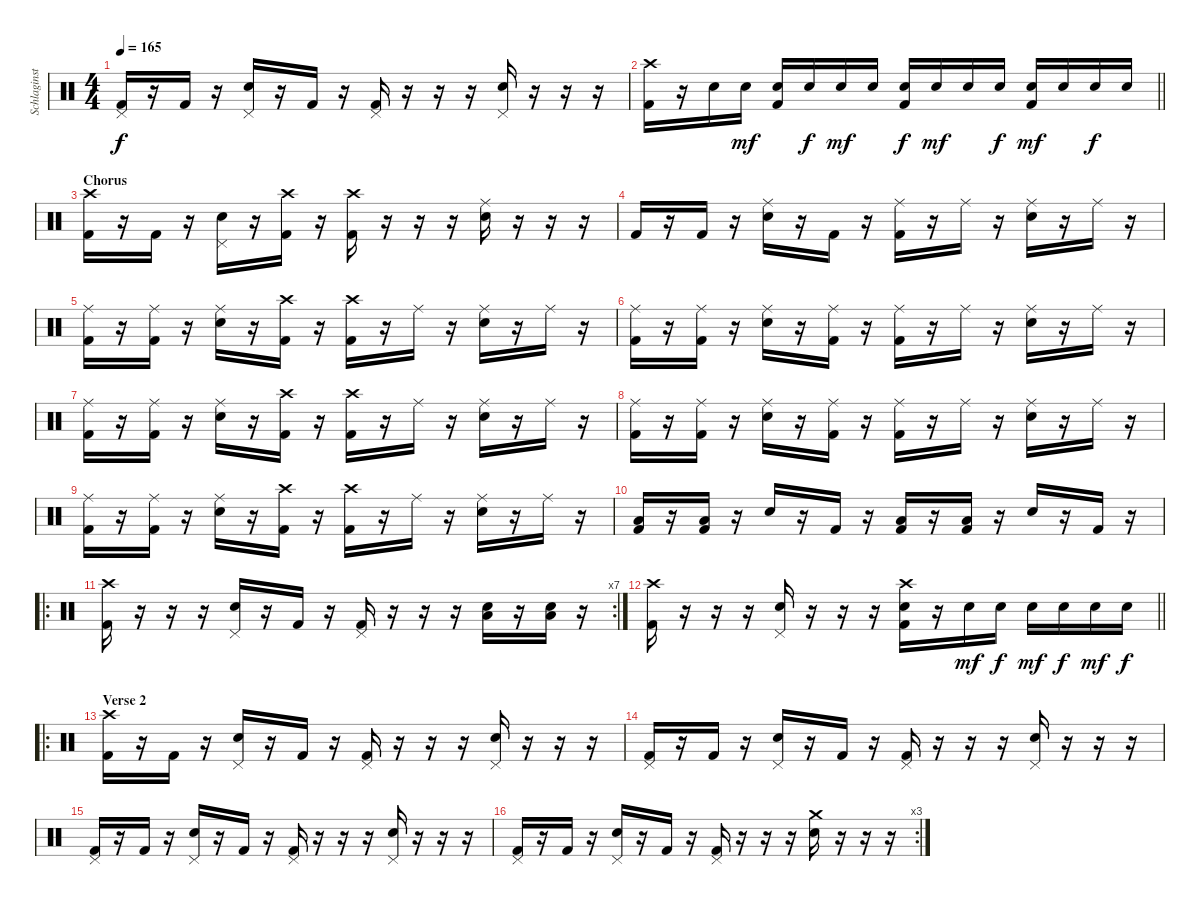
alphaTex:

\track ("Schlaginstrumente - Auswahl" "Schlaginst") {instrument percussion}
\staff {score}
\articulation defaults
\ts (4 4)
\tempo 165
\clef neutral
\ks c
("Pedal Hi-Hat (hit)" "Kick (hit) 2").16{dy f} r.16 "Kick (hit) 2".16 r.16 ("Pedal Hi-Hat (hit)" "Electric Snare (hit)").16 r.16 "Kick (hit) 2".16 r.16 ("Pedal Hi-Hat (hit)" "Kick (hit) 2").16 r.16 r.16 r.16 ("Pedal Hi-Hat (hit)" "Electric Snare (hit)").16 r.16 r.16 r.16 |
\barLineRight lightlight
("Crash high (hit)" "Kick (hit) 2").16 r.16 "Electric Snare (hit)".16 "Electric Snare (hit)".16{dy mf} ("Electric Snare (hit)" "Kick (hit) 2").16 "Electric Snare (hit)".16{dy f} "Electric Snare (hit)".16{dy mf} "Electric Snare (hit)".16 ("Electric Snare (hit)" "Kick (hit) 2").16{dy f} "Electric Snare (hit)".16{dy mf} "Electric Snare (hit)".16 "Electric Snare (hit)".16{dy f} ("Electric Snare (hit)" "Kick (hit) 2").16{dy mf} "Electric Snare (hit)".16 "Electric Snare (hit)".16{dy f} "Electric Snare (hit)".16 |
\section ("" "Chorus")
("Crash high (hit)" "Kick (hit) 2").16 r.16 "Kick (hit) 2".16 r.16 ("Pedal Hi-Hat (hit)" "Electric Snare (hit)").16 r.16 ("Crash high (hit)" "Kick (hit) 2").16 r.16 ("Crash high (hit)" "Kick (hit) 2").16 r.16 r.16 r.16 ("Ride (middle)" "Electric Snare (hit)").16 r.16 r.16 r.16 |
"Kick (hit) 2".16 r.16 "Kick (hit) 2".16 r.16 ("Ride (middle)" "Electric Snare (hit)").16 r.16 "Kick (hit) 2".16 r.16 ("Ride (middle)" "Kick (hit) 2").16 r.16 "Ride (middle)".16 r.16 ("Ride (middle)" "Electric Snare (hit)").16 r.16 "Ride (middle)".16 r.16 |
("Ride (middle)" "Kick (hit) 2").16 r.16 ("Ride (middle)" "Kick (hit) 2").16 r.16 ("Ride (middle)" "Electric Snare (hit)").16 r.16 ("Crash high (hit)" "Kick (hit) 2").16 r.16 ("Crash high (hit)" "Kick (hit) 2").16 r.16 "Ride (middle)".16 r.16 ("Ride (middle)" "Electric Snare (hit)").16 r.16 "Ride (middle)".16 r.16 |
("Ride (middle)" "Kick (hit) 2").16 r.16 ("Ride (middle)" "Kick (hit) 2").16 r.16 ("Ride (middle)" "Electric Snare (hit)").16 r.16 ("Ride (middle)" "Kick (hit) 2").16 r.16 ("Ride (middle)" "Kick (hit) 2").16 r.16 "Ride (middle)".16 r.16 ("Ride (middle)" "Electric Snare (hit)").16 r.16 "Ride (middle)".16 r.16 |
("Ride (middle)" "Kick (hit) 2").16 r.16 ("Ride (middle)" "Kick (hit) 2").16 r.16 ("Ride (middle)" "Electric Snare (hit)").16 r.16 ("Crash high (hit)" "Kick (hit) 2").16 r.16 ("Crash high (hit)" "Kick (hit) 2").16 r.16 "Ride (middle)".16 r.16 ("Ride (middle)" "Electric Snare (hit)").16 r.16 "Ride (middle)".16 r.16 |
("Ride (middle)" "Kick (hit) 2").16 r.16 ("Ride (middle)" "Kick (hit) 2").16 r.16 ("Ride (middle)" "Electric Snare (hit)").16 r.16 ("Ride (middle)" "Kick (hit) 2").16 r.16 ("Ride (middle)" "Kick (hit) 2").16 r.16 "Ride (middle)".16 r.16 ("Ride (middle)" "Electric Snare (hit)").16 r.16 "Ride (middle)".16 r.16 |
("Ride (middle)" "Kick (hit) 2").16 r.16 ("Ride (middle)" "Kick (hit) 2").16 r.16 ("Ride (middle)" "Electric Snare (hit)").16 r.16 ("Crash high (hit)" "Kick (hit) 2").16 r.16 ("Crash high (hit)" "Kick (hit) 2").16 r.16 "Ride (middle)".16 r.16 ("Ride (middle)" "Electric Snare (hit)").16 r.16 "Ride (middle)".16 r.16 |
("Low Floor Tom (hit)" "Kick (hit) 2").16 r.16 ("Low Floor Tom (hit)" "Kick (hit) 2").16 r.16 "Electric Snare (hit)".16 r.16 "Kick (hit) 2".16 r.16 ("Low Floor Tom (hit)" "Kick (hit) 2").16 r.16 ("Low Floor Tom (hit)" "Kick (hit) 2").16 r.16 "Electric Snare (hit)".16 r.16 "Kick (hit) 2".16 r.16 |
\ro
\rc 7
("Crash high (hit)" "Kick (hit) 2").16 r.16 r.16 r.16 ("Pedal Hi-Hat (hit)" "Electric Snare (hit)").16 r.16 "Kick (hit) 2".16 r.16 ("Pedal Hi-Hat (hit)" "Kick (hit) 2").16 r.16 r.16 r.16 ("Electric Snare (hit)" "Low Floor Tom (hit)").16 r.16 ("Electric Snare (hit)" "Low Floor Tom (hit)").16 r.16 |
\barLineRight lightlight
("Crash high (hit)" "Kick (hit) 2").16 r.16 r.16 r.16 ("Pedal Hi-Hat (hit)" "Electric Snare (hit)").16 r.16 r.16 r.16 ("Crash high (hit)" "Electric Snare (hit)" "Kick (hit) 2").16 r.16 "Electric Snare (hit)".16{dy mf} "Electric Snare (hit)".16{dy f} "Electric Snare (hit)".16{dy mf} "Electric Snare (hit)".16{dy f} "Electric Snare (hit)".16{dy mf} "Electric Snare (hit)".16{dy f} |
\ro
\section ("" "Verse 2")
("Crash high (hit)" "Kick (hit) 2").16 r.16 "Kick (hit) 2".16 r.16 ("Pedal Hi-Hat (hit)" "Electric Snare (hit)").16 r.16 "Kick (hit) 2".16 r.16 ("Pedal Hi-Hat (hit)" "Kick (hit) 2").16 r.16 r.16 r.16 ("Pedal Hi-Hat (hit)" "Electric Snare (hit)").16 r.16 r.16 r.16 |
("Pedal Hi-Hat (hit)" "Kick (hit) 2").16 r.16 "Kick (hit) 2".16 r.16 ("Pedal Hi-Hat (hit)" "Electric Snare (hit)").16 r.16 "Kick (hit) 2".16 r.16 ("Pedal Hi-Hat (hit)" "Kick (hit) 2").16 r.16 r.16 r.16 ("Pedal Hi-Hat (hit)" "Electric Snare (hit)").16 r.16 r.16 r.16 |
("Pedal Hi-Hat (hit)" "Kick (hit) 2").16 r.16 "Kick (hit) 2".16 r.16 ("Pedal Hi-Hat (hit)" "Electric Snare (hit)").16 r.16 "Kick (hit) 2".16 r.16 ("Pedal Hi-Hat (hit)" "Kick (hit) 2").16 r.16 r.16 r.16 ("Pedal Hi-Hat (hit)" "Electric Snare (hit)").16 r.16 r.16 r.16 |
\rc 3
("Pedal Hi-Hat (hit)" "Kick (hit) 2").16 r.16 "Kick (hit) 2".16 r.16 ("Pedal Hi-Hat (hit)" "Electric Snare (hit)").16 r.16 "Kick (hit) 2".16 r.16 ("Pedal Hi-Hat (hit)" "Kick (hit) 2").16 r.16 r.16 r.16 ("Crash medium (hit)" "Electric Snare (hit)").16 r.16 r.16 r.16
